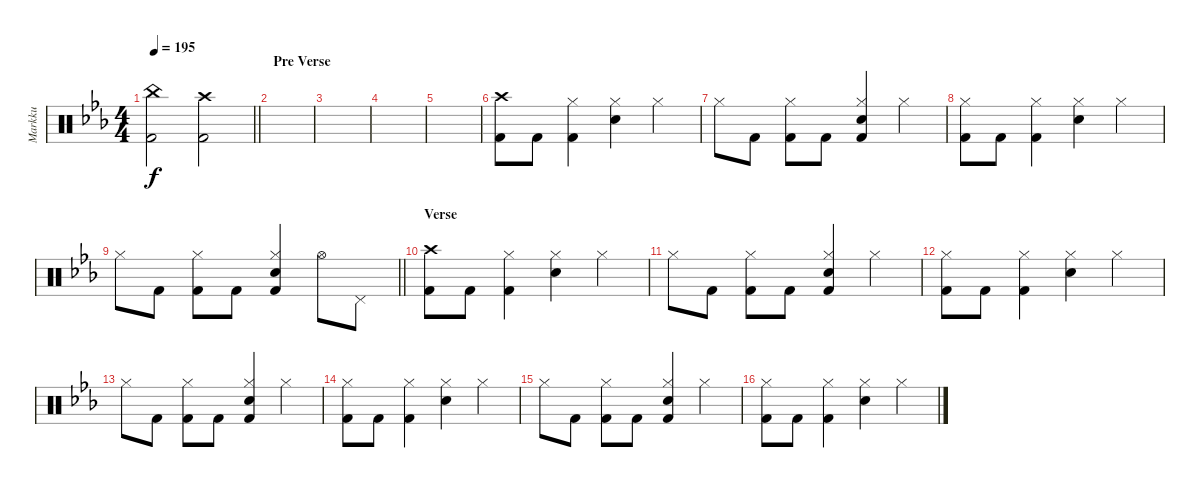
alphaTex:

\track ("Markku" "Markku") {instrument percussion}
\staff {score}
\articulation defaults
\ts (4 4)
\tempo 195
\clef neutral
\barLineRight lightlight
\ks cminor
("Kick (hit) 2" "China (hit)").2{dy f} ("Kick (hit) 2" "Crash high (hit)").2 |
\section ("" "Pre Verse")
|
|
|
|
("Kick (hit) 2" "Crash high (hit)").8 "Kick (hit) 2".8 ("Kick (hit) 2" "Hi-Hat (closed)").4 ("Snare (hit) 2" "Hi-Hat (closed)").4 "Hi-Hat (closed)".4 |
"Hi-Hat (closed)".8 "Kick (hit) 2".8 ("Kick (hit) 2" "Hi-Hat (closed)").8 "Kick (hit) 2".8 ("Kick (hit) 2" "Snare (hit) 2" "Hi-Hat (closed)").4 "Hi-Hat (closed)".4 |
("Kick (hit) 2" "Hi-Hat (closed)").8 "Kick (hit) 2".8 ("Kick (hit) 2" "Hi-Hat (closed)").4 ("Snare (hit) 2" "Hi-Hat (closed)").4 "Hi-Hat (closed)".4 |
\barLineRight lightlight "Hi-Hat (closed)".8 "Kick (hit) 2".8
("Kick (hit) 2" "Hi-Hat (closed)").8 "Kick (hit) 2".8 ("Kick (hit) 2" "Snare (hit) 2" "Hi-Hat (closed)").4 "Hi-Hat (open)".8 "Pedal Hi-Hat (hit)".8 |
\section ("" "Verse")
("Kick (hit) 2" "Crash high (hit)").8 "Kick (hit) 2".8 ("Kick (hit) 2" "Hi-Hat (closed)").4 ("Snare (hit) 2" "Hi-Hat (closed)").4 "Hi-Hat (closed)".4 |
"Hi-Hat (closed)".8 "Kick (hit) 2".8 ("Kick (hit) 2" "Hi-Hat (closed)").8 "Kick (hit) 2".8 ("Kick (hit) 2" "Snare (hit) 2" "Hi-Hat (closed)").4 "Hi-Hat (closed)".4 |
("Kick (hit) 2" "Hi-Hat (closed)").8 "Kick (hit) 2".8 ("Kick (hit) 2" "Hi-Hat (closed)").4 ("Snare (hit) 2" "Hi-Hat (closed)").4 "Hi-Hat (closed)".4 |
"Hi-Hat (closed)".8 "Kick (hit) 2".8 ("Kick (hit) 2" "Hi-Hat (closed)").8 "Kick (hit) 2".8 ("Kick (hit) 2" "Snare (hit) 2" "Hi-Hat (closed)").4 "Hi-Hat (closed)".4 |
("Kick (hit) 2" "Hi-Hat (closed)").8 "Kick (hit) 2".8 ("Kick (hit) 2" "Hi-Hat (closed)").4 ("Snare (hit) 2" "Hi-Hat (closed)").4 "Hi-Hat (closed)".4 |
"Hi-Hat (closed)".8 "Kick (hit) 2".8 ("Kick (hit) 2" "Hi-Hat (closed)").8 "Kick (hit) 2".8 ("Kick (hit) 2" "Snare (hit) 2" "Hi-Hat (closed)").4 "Hi-Hat (closed)".4 |
("Kick (hit) 2" "Hi-Hat (closed)").8 "Kick (hit) 2".8 ("Kick (hit) 2" "Hi-Hat (closed)").4 ("Snare (hit) 2" "Hi-Hat (closed)").4 "Hi-Hat (closed)".4
